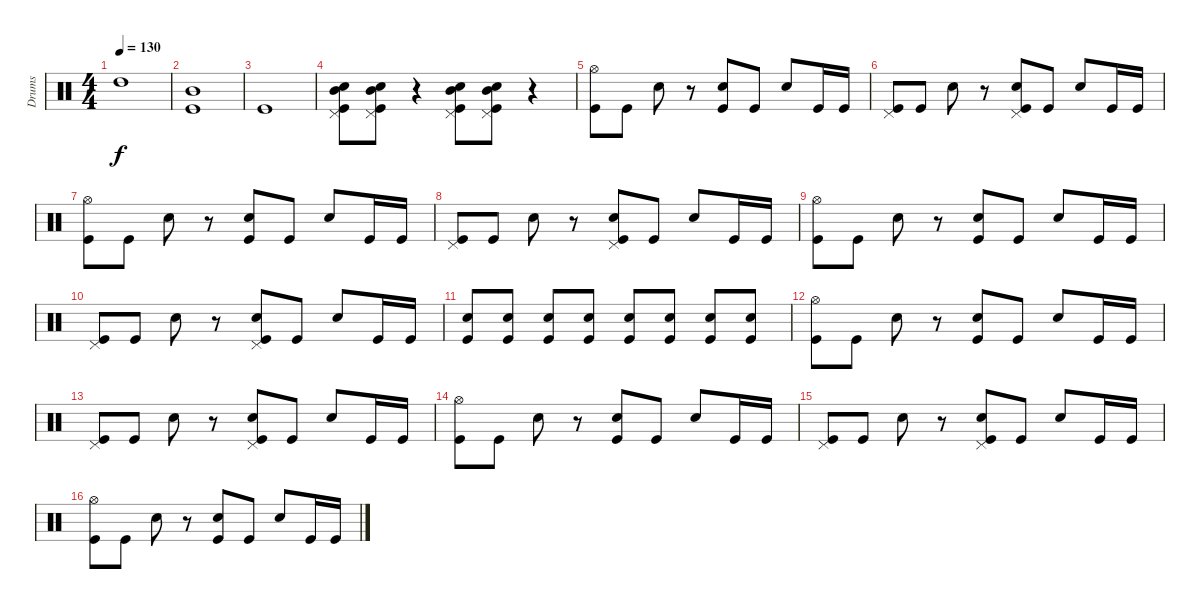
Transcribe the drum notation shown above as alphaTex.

\track ("Drums" "Drums") {instrument percussion}
\staff {score}
\articulation defaults
\ts (4 4)
\tempo 130
\clef neutral
\ks c "High Tom (hit)".1{dy f}
|
("Mid Tom (hit)" "Kick (hit)").1 |
"Kick (hit)".1 |
("Pedal Hi-Hat (hit)" "Snare (hit) 2" "Mid Tom (hit)" "Kick (hit)").8 ("Pedal Hi-Hat (hit)" "Snare (hit) 2" "Mid Tom (hit)" "Kick (hit)").8 r.4 ("Pedal Hi-Hat (hit)" "Snare (hit) 2" "Mid Tom (hit)" "Kick (hit)").8 ("Pedal Hi-Hat (hit)" "Snare (hit) 2" "Mid Tom (hit)" "Kick (hit)").8 r.4 |
("Hi-Hat (open)" "Kick (hit)").8 "Kick (hit)".8 "Snare (hit) 2".8 r.8 ("Snare (hit) 2" "Kick (hit)").8 "Kick (hit)".8 "Snare (hit) 2".8 "Kick (hit)".16 "Kick (hit)".16 |
("Pedal Hi-Hat (hit)" "Kick (hit)").8 "Kick (hit)".8 "Snare (hit) 2".8 r.8 ("Pedal Hi-Hat (hit)" "Snare (hit) 2" "Kick (hit)").8 "Kick (hit)".8 "Snare (hit) 2".8 "Kick (hit)".16 "Kick (hit)".16 |
("Hi-Hat (open)" "Kick (hit)").8 "Kick (hit)".8 "Snare (hit) 2".8 r.8 ("Snare (hit) 2" "Kick (hit)").8 "Kick (hit)".8 "Snare (hit) 2".8 "Kick (hit)".16 "Kick (hit)".16 |
("Pedal Hi-Hat (hit)" "Kick (hit)").8 "Kick (hit)".8 "Snare (hit) 2".8 r.8 ("Pedal Hi-Hat (hit)" "Snare (hit) 2" "Kick (hit)").8 "Kick (hit)".8 "Snare (hit) 2".8 "Kick (hit)".16 "Kick (hit)".16 |
("Hi-Hat (open)" "Kick (hit)").8 "Kick (hit)".8 "Snare (hit) 2".8 r.8 ("Snare (hit) 2" "Kick (hit)").8 "Kick (hit)".8 "Snare (hit) 2".8 "Kick (hit)".16 "Kick (hit)".16 |
("Pedal Hi-Hat (hit)" "Kick (hit)").8 "Kick (hit)".8 "Snare (hit) 2".8 r.8 ("Pedal Hi-Hat (hit)" "Snare (hit) 2" "Kick (hit)").8 "Kick (hit)".8 "Snare (hit) 2".8 "Kick (hit)".16 "Kick (hit)".16 |
("Snare (hit) 2" "Kick (hit)").8 ("Snare (hit) 2" "Kick (hit)").8 ("Snare (hit) 2" "Kick (hit)").8 ("Snare (hit) 2" "Kick (hit)").8 ("Snare (hit) 2" "Kick (hit)").8 ("Snare (hit) 2" "Kick (hit)").8 ("Snare (hit) 2" "Kick (hit)").8 ("Snare (hit) 2" "Kick (hit)").8 |
("Hi-Hat (open)" "Kick (hit)").8 "Kick (hit)".8 "Snare (hit) 2".8 r.8 ("Snare (hit) 2" "Kick (hit)").8 "Kick (hit)".8 "Snare (hit) 2".8 "Kick (hit)".16 "Kick (hit)".16 |
("Pedal Hi-Hat (hit)" "Kick (hit)").8 "Kick (hit)".8 "Snare (hit) 2".8 r.8 ("Pedal Hi-Hat (hit)" "Snare (hit) 2" "Kick (hit)").8 "Kick (hit)".8 "Snare (hit) 2".8 "Kick (hit)".16 "Kick (hit)".16 |
("Hi-Hat (open)" "Kick (hit)").8 "Kick (hit)".8 "Snare (hit) 2".8 r.8 ("Snare (hit) 2" "Kick (hit)").8 "Kick (hit)".8 "Snare (hit) 2".8 "Kick (hit)".16 "Kick (hit)".16 |
("Pedal Hi-Hat (hit)" "Kick (hit)").8 "Kick (hit)".8 "Snare (hit) 2".8 r.8 ("Pedal Hi-Hat (hit)" "Snare (hit) 2" "Kick (hit)").8 "Kick (hit)".8 "Snare (hit) 2".8 "Kick (hit)".16 "Kick (hit)".16 |
("Hi-Hat (open)" "Kick (hit)").8 "Kick (hit)".8 "Snare (hit) 2".8 r.8 ("Snare (hit) 2" "Kick (hit)").8 "Kick (hit)".8 "Snare (hit) 2".8 "Kick (hit)".16 "Kick (hit)".16
